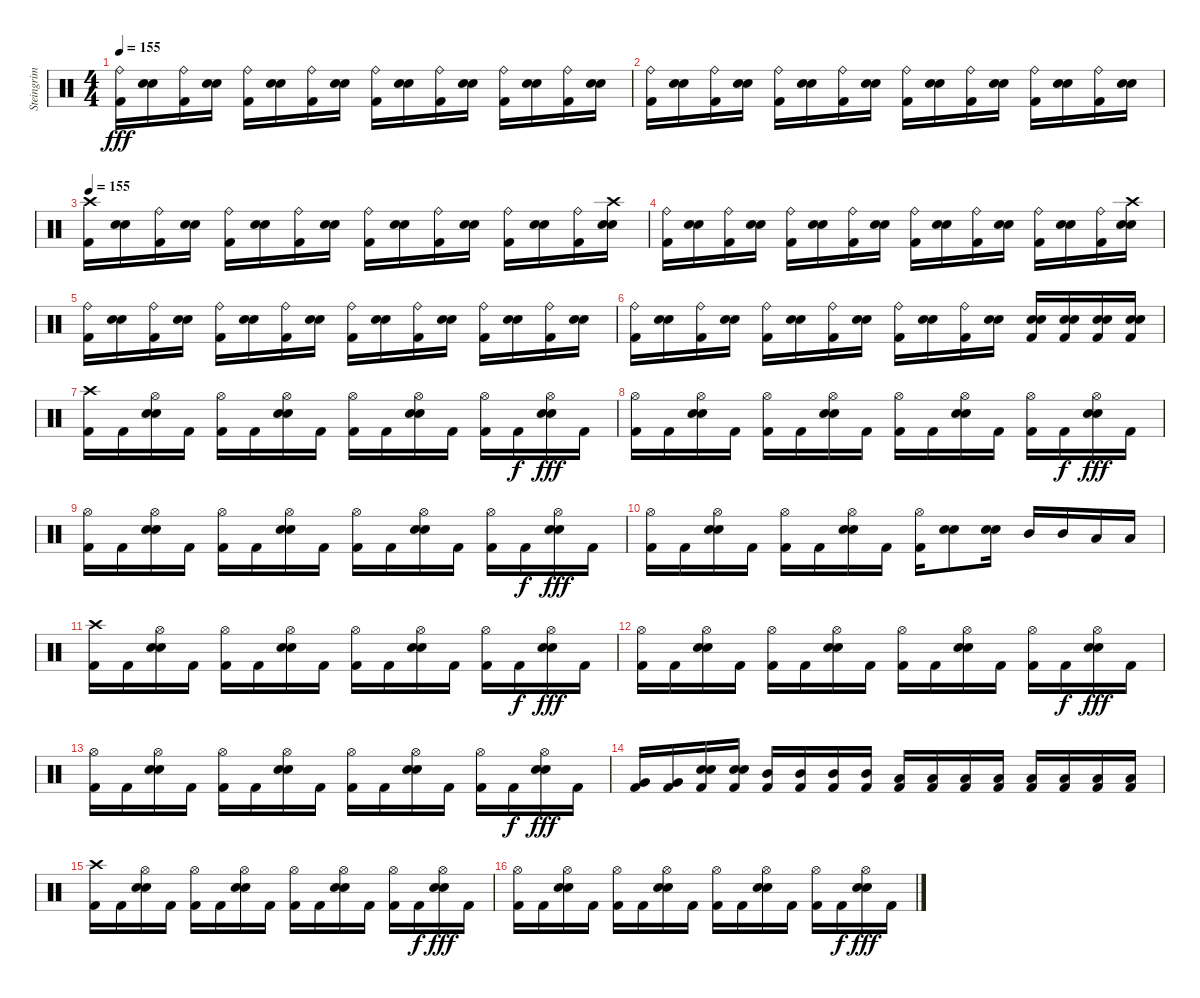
\track ("Steingrim" "Steingrim") {instrument percussion}
\staff {score}
\articulation defaults
\ts (4 4)
\tempo 155
\clef neutral
\ks c
("Kick (hit) 2" "Ride (bell)").16{dy fff} ("Snare (hit) 2" "Electric Snare (hit)").16 ("Kick (hit) 2" "Ride (bell)").16 ("Snare (hit) 2" "Electric Snare (hit)").16 ("Kick (hit) 2" "Ride (bell)").16 ("Snare (hit) 2" "Electric Snare (hit)").16 ("Kick (hit) 2" "Ride (bell)").16 ("Snare (hit) 2" "Electric Snare (hit)").16 ("Kick (hit) 2" "Ride (bell)").16 ("Snare (hit) 2" "Electric Snare (hit)").16 ("Kick (hit) 2" "Ride (bell)").16 ("Snare (hit) 2" "Electric Snare (hit)").16 ("Kick (hit) 2" "Ride (bell)").16 ("Snare (hit) 2" "Electric Snare (hit)").16 ("Kick (hit) 2" "Ride (bell)").16 ("Snare (hit) 2" "Electric Snare (hit)").16 |
("Kick (hit) 2" "Ride (bell)").16 ("Snare (hit) 2" "Electric Snare (hit)").16 ("Kick (hit) 2" "Ride (bell)").16 ("Snare (hit) 2" "Electric Snare (hit)").16 ("Kick (hit) 2" "Ride (bell)").16 ("Snare (hit) 2" "Electric Snare (hit)").16 ("Kick (hit) 2" "Ride (bell)").16 ("Snare (hit) 2" "Electric Snare (hit)").16 ("Kick (hit) 2" "Ride (bell)").16 ("Snare (hit) 2" "Electric Snare (hit)").16 ("Kick (hit) 2" "Ride (bell)").16 ("Snare (hit) 2" "Electric Snare (hit)").16 ("Kick (hit) 2" "Ride (bell)").16 ("Snare (hit) 2" "Electric Snare (hit)").16 ("Kick (hit) 2" "Ride (bell)").16 ("Snare (hit) 2" "Electric Snare (hit)").16 |
\tempo 155
("Kick (hit) 2" "Crash high (hit)").16 ("Snare (hit) 2" "Electric Snare (hit)").16 ("Kick (hit) 2" "Ride (bell)").16 ("Snare (hit) 2" "Electric Snare (hit)").16 ("Kick (hit) 2" "Ride (bell)").16 ("Snare (hit) 2" "Electric Snare (hit)").16 ("Kick (hit) 2" "Ride (bell)").16 ("Snare (hit) 2" "Electric Snare (hit)").16 ("Kick (hit) 2" "Ride (bell)").16 ("Snare (hit) 2" "Electric Snare (hit)").16 ("Kick (hit) 2" "Ride (bell)").16 ("Snare (hit) 2" "Electric Snare (hit)").16 ("Kick (hit) 2" "Ride (bell)").16 ("Snare (hit) 2" "Electric Snare (hit)").16 ("Kick (hit) 2" "Ride (bell)").16 ("Snare (hit) 2" "Electric Snare (hit)" "Crash high (hit)").16 |
("Kick (hit) 2" "Ride (bell)").16 ("Snare (hit) 2" "Electric Snare (hit)").16 ("Kick (hit) 2" "Ride (bell)").16 ("Snare (hit) 2" "Electric Snare (hit)").16 ("Kick (hit) 2" "Ride (bell)").16 ("Snare (hit) 2" "Electric Snare (hit)").16 ("Kick (hit) 2" "Ride (bell)").16 ("Snare (hit) 2" "Electric Snare (hit)").16 ("Kick (hit) 2" "Ride (bell)").16 ("Snare (hit) 2" "Electric Snare (hit)").16 ("Kick (hit) 2" "Ride (bell)").16 ("Snare (hit) 2" "Electric Snare (hit)").16 ("Kick (hit) 2" "Ride (bell)").16 ("Snare (hit) 2" "Electric Snare (hit)").16 ("Kick (hit) 2" "Ride (bell)").16 ("Snare (hit) 2" "Electric Snare (hit)" "Crash high (hit)").16 |
("Kick (hit) 2" "Ride (bell)").16 ("Snare (hit) 2" "Electric Snare (hit)").16 ("Kick (hit) 2" "Ride (bell)").16 ("Snare (hit) 2" "Electric Snare (hit)").16 ("Kick (hit) 2" "Ride (bell)").16 ("Snare (hit) 2" "Electric Snare (hit)").16 ("Kick (hit) 2" "Ride (bell)").16 ("Snare (hit) 2" "Electric Snare (hit)").16 ("Kick (hit) 2" "Ride (bell)").16 ("Snare (hit) 2" "Electric Snare (hit)").16 ("Kick (hit) 2" "Ride (bell)").16 ("Snare (hit) 2" "Electric Snare (hit)").16 ("Kick (hit) 2" "Ride (bell)").16 ("Snare (hit) 2" "Electric Snare (hit)").16 ("Kick (hit) 2" "Ride (bell)").16 ("Snare (hit) 2" "Electric Snare (hit)").16 |
("Kick (hit) 2" "Ride (bell)").16 ("Snare (hit) 2" "Electric Snare (hit)").16 ("Kick (hit) 2" "Ride (bell)").16 ("Snare (hit) 2" "Electric Snare (hit)").16 ("Kick (hit) 2" "Ride (bell)").16 ("Snare (hit) 2" "Electric Snare (hit)").16 ("Kick (hit) 2" "Ride (bell)").16 ("Snare (hit) 2" "Electric Snare (hit)").16 ("Kick (hit) 2" "Ride (bell)").16 ("Snare (hit) 2" "Electric Snare (hit)").16 ("Kick (hit) 2" "Ride (bell)").16 ("Snare (hit) 2" "Electric Snare (hit)").16 ("Snare (hit) 2" "Electric Snare (hit)" "Kick (hit) 2").16 ("Snare (hit) 2" "Electric Snare (hit)" "Kick (hit) 2").16 ("Snare (hit) 2" "Electric Snare (hit)" "Kick (hit) 2").16 ("Snare (hit) 2" "Electric Snare (hit)" "Kick (hit) 2").16 |
("Kick (hit) 2" "Crash high (hit)").16 "Kick (hit) 2".16 ("Snare (hit) 2" "Electric Snare (hit)" "Hi-Hat (open)").16 "Kick (hit) 2".16 ("Kick (hit) 2" "Hi-Hat (open)").16 "Kick (hit) 2".16 ("Snare (hit) 2" "Electric Snare (hit)" "Hi-Hat (open)").16 "Kick (hit) 2".16 ("Kick (hit) 2" "Hi-Hat (open)").16 "Kick (hit) 2".16 ("Snare (hit) 2" "Electric Snare (hit)" "Hi-Hat (open)").16 "Kick (hit) 2".16 ("Kick (hit) 2" "Hi-Hat (open)").16 "Kick (hit) 2".16{dy f} ("Snare (hit) 2" "Electric Snare (hit)" "Hi-Hat (open)").16{dy fff} "Kick (hit) 2".16 |
("Kick (hit) 2" "Hi-Hat (open)").16 "Kick (hit) 2".16 ("Snare (hit) 2" "Electric Snare (hit)" "Hi-Hat (open)").16 "Kick (hit) 2".16 ("Kick (hit) 2" "Hi-Hat (open)").16 "Kick (hit) 2".16 ("Snare (hit) 2" "Electric Snare (hit)" "Hi-Hat (open)").16 "Kick (hit) 2".16 ("Kick (hit) 2" "Hi-Hat (open)").16 "Kick (hit) 2".16 ("Snare (hit) 2" "Electric Snare (hit)" "Hi-Hat (open)").16 "Kick (hit) 2".16 ("Kick (hit) 2" "Hi-Hat (open)").16 "Kick (hit) 2".16{dy f} ("Snare (hit) 2" "Electric Snare (hit)" "Hi-Hat (open)").16{dy fff} "Kick (hit) 2".16 |
("Kick (hit) 2" "Hi-Hat (open)").16 "Kick (hit) 2".16 ("Snare (hit) 2" "Electric Snare (hit)" "Hi-Hat (open)").16 "Kick (hit) 2".16 ("Kick (hit) 2" "Hi-Hat (open)").16 "Kick (hit) 2".16 ("Snare (hit) 2" "Electric Snare (hit)" "Hi-Hat (open)").16 "Kick (hit) 2".16 ("Kick (hit) 2" "Hi-Hat (open)").16 "Kick (hit) 2".16 ("Snare (hit) 2" "Electric Snare (hit)" "Hi-Hat (open)").16 "Kick (hit) 2".16 ("Kick (hit) 2" "Hi-Hat (open)").16 "Kick (hit) 2".16{dy f} ("Snare (hit) 2" "Electric Snare (hit)" "Hi-Hat (open)").16{dy fff} "Kick (hit) 2".16 |
("Kick (hit) 2" "Hi-Hat (open)").16 "Kick (hit) 2".16 ("Snare (hit) 2" "Electric Snare (hit)" "Hi-Hat (open)").16 "Kick (hit) 2".16 ("Kick (hit) 2" "Hi-Hat (open)").16 "Kick (hit) 2".16 ("Snare (hit) 2" "Electric Snare (hit)" "Hi-Hat (open)").16 "Kick (hit) 2".16 ("Kick (hit) 2" "Hi-Hat (open)").16 ("Snare (hit) 2" "Electric Snare (hit)").8 ("Snare (hit) 2" "Electric Snare (hit)").16 "Mid Tom (hit)".16 "Mid Tom (hit)".16 "Low Tom (hit)".16 "Low Tom (hit)".16 |
("Kick (hit) 2" "Crash high (hit)").16 "Kick (hit) 2".16 ("Snare (hit) 2" "Electric Snare (hit)" "Hi-Hat (open)").16 "Kick (hit) 2".16 ("Kick (hit) 2" "Hi-Hat (open)").16 "Kick (hit) 2".16 ("Snare (hit) 2" "Electric Snare (hit)" "Hi-Hat (open)").16 "Kick (hit) 2".16 ("Kick (hit) 2" "Hi-Hat (open)").16 "Kick (hit) 2".16 ("Snare (hit) 2" "Electric Snare (hit)" "Hi-Hat (open)").16 "Kick (hit) 2".16 ("Kick (hit) 2" "Hi-Hat (open)").16 "Kick (hit) 2".16{dy f} ("Snare (hit) 2" "Electric Snare (hit)" "Hi-Hat (open)").16{dy fff} "Kick (hit) 2".16 |
("Kick (hit) 2" "Hi-Hat (open)").16 "Kick (hit) 2".16 ("Snare (hit) 2" "Electric Snare (hit)" "Hi-Hat (open)").16 "Kick (hit) 2".16 ("Kick (hit) 2" "Hi-Hat (open)").16 "Kick (hit) 2".16 ("Snare (hit) 2" "Electric Snare (hit)" "Hi-Hat (open)").16 "Kick (hit) 2".16 ("Kick (hit) 2" "Hi-Hat (open)").16 "Kick (hit) 2".16 ("Snare (hit) 2" "Electric Snare (hit)" "Hi-Hat (open)").16 "Kick (hit) 2".16 ("Kick (hit) 2" "Hi-Hat (open)").16 "Kick (hit) 2".16{dy f} ("Snare (hit) 2" "Electric Snare (hit)" "Hi-Hat (open)").16{dy fff} "Kick (hit) 2".16 |
("Kick (hit) 2" "Hi-Hat (open)").16 "Kick (hit) 2".16 ("Snare (hit) 2" "Electric Snare (hit)" "Hi-Hat (open)").16 "Kick (hit) 2".16 ("Kick (hit) 2" "Hi-Hat (open)").16 "Kick (hit) 2".16 ("Snare (hit) 2" "Electric Snare (hit)" "Hi-Hat (open)").16 "Kick (hit) 2".16 ("Kick (hit) 2" "Hi-Hat (open)").16 "Kick (hit) 2".16 ("Snare (hit) 2" "Electric Snare (hit)" "Hi-Hat (open)").16 "Kick (hit) 2".16 ("Kick (hit) 2" "Hi-Hat (open)").16 "Kick (hit) 2".16{dy f} ("Snare (hit) 2" "Electric Snare (hit)" "Hi-Hat (open)").16{dy fff} "Kick (hit) 2".16 |
("Very Low Tom (hit)" "Kick (hit) 2").16 ("Very Low Tom (hit)" "Kick (hit) 2").16 ("Snare (hit) 2" "Electric Snare (hit)" "Kick (hit) 2").16 ("Snare (hit) 2" "Electric Snare (hit)" "Kick (hit) 2").16 ("Mid Tom (hit)" "Kick (hit) 2").16 ("Mid Tom (hit)" "Kick (hit) 2").16 ("Mid Tom (hit)" "Kick (hit) 2").16 ("Mid Tom (hit)" "Kick (hit) 2").16 ("Low Tom (hit)" "Kick (hit) 2").16 ("Low Tom (hit)" "Kick (hit) 2").16 ("Low Tom (hit)" "Kick (hit) 2").16 ("Low Tom (hit)" "Kick (hit) 2").16 ("Low Floor Tom (hit)" "Kick (hit) 2").16 ("Low Floor Tom (hit)" "Kick (hit) 2").16 ("Low Floor Tom (hit)" "Kick (hit) 2").16 ("Low Floor Tom (hit)" "Kick (hit) 2").16 |
("Kick (hit) 2" "Crash high (hit)").16 "Kick (hit) 2".16 ("Snare (hit) 2" "Electric Snare (hit)" "Hi-Hat (open)").16 "Kick (hit) 2".16 ("Kick (hit) 2" "Hi-Hat (open)").16 "Kick (hit) 2".16 ("Snare (hit) 2" "Electric Snare (hit)" "Hi-Hat (open)").16 "Kick (hit) 2".16 ("Kick (hit) 2" "Hi-Hat (open)").16 "Kick (hit) 2".16 ("Snare (hit) 2" "Electric Snare (hit)" "Hi-Hat (open)").16 "Kick (hit) 2".16 ("Kick (hit) 2" "Hi-Hat (open)").16 "Kick (hit) 2".16{dy f} ("Snare (hit) 2" "Electric Snare (hit)" "Hi-Hat (open)").16{dy fff} "Kick (hit) 2".16 |
("Kick (hit) 2" "Hi-Hat (open)").16 "Kick (hit) 2".16 ("Snare (hit) 2" "Electric Snare (hit)" "Hi-Hat (open)").16 "Kick (hit) 2".16 ("Kick (hit) 2" "Hi-Hat (open)").16 "Kick (hit) 2".16 ("Snare (hit) 2" "Electric Snare (hit)" "Hi-Hat (open)").16 "Kick (hit) 2".16 ("Kick (hit) 2" "Hi-Hat (open)").16 "Kick (hit) 2".16 ("Snare (hit) 2" "Electric Snare (hit)" "Hi-Hat (open)").16 "Kick (hit) 2".16 ("Kick (hit) 2" "Hi-Hat (open)").16 "Kick (hit) 2".16{dy f} ("Snare (hit) 2" "Electric Snare (hit)" "Hi-Hat (open)").16{dy fff} "Kick (hit) 2".16
